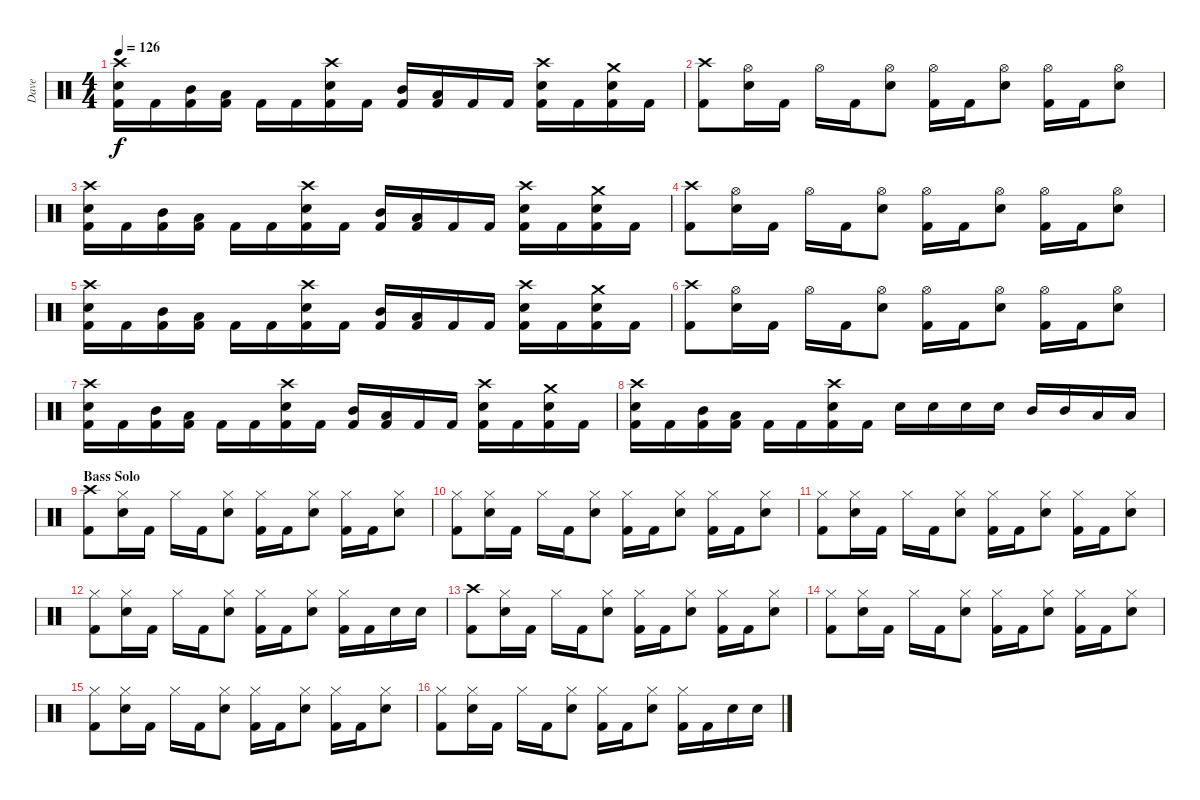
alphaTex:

\track ("Dave" "Dave") {instrument percussion}
\staff {score}
\articulation defaults
\ts (4 4)
\tempo 126
\clef neutral
\ks c
("Kick (hit) 2" "Electric Snare (hit)" "Crash high (hit)").16{dy f} "Kick (hit) 2".16 ("Kick (hit) 2" "Mid Tom (hit)").16 ("Kick (hit) 2" "Low Tom (hit)").16 "Kick (hit) 2".16 "Kick (hit) 2".16 ("Kick (hit) 2" "Electric Snare (hit)" "Crash high (hit)").16 "Kick (hit) 2".16 ("Kick (hit) 2" "Mid Tom (hit)").16 ("Kick (hit) 2" "Low Tom (hit)").16 "Kick (hit) 2".16 "Kick (hit) 2".16 ("Kick (hit) 2" "Electric Snare (hit)" "Crash high (hit)").16 "Kick (hit) 2".16 ("Kick (hit) 2" "Electric Snare (hit)" "Crash medium (hit)").16 "Kick (hit) 2".16 |
("Kick (hit) 2" "Crash high (hit)").8 ("Electric Snare (hit)" "Hi-Hat (open)").16 "Kick (hit) 2".16 "Hi-Hat (open)".16 "Kick (hit) 2".16 ("Electric Snare (hit)" "Hi-Hat (open)").8 ("Kick (hit) 2" "Hi-Hat (open)").16 "Kick (hit) 2".16 ("Electric Snare (hit)" "Hi-Hat (open)").8 ("Kick (hit) 2" "Hi-Hat (open)").16 "Kick (hit) 2".16 ("Electric Snare (hit)" "Hi-Hat (open)").8 |
("Kick (hit) 2" "Electric Snare (hit)" "Crash high (hit)").16 "Kick (hit) 2".16 ("Kick (hit) 2" "Mid Tom (hit)").16 ("Kick (hit) 2" "Low Tom (hit)").16 "Kick (hit) 2".16 "Kick (hit) 2".16 ("Kick (hit) 2" "Electric Snare (hit)" "Crash high (hit)").16 "Kick (hit) 2".16 ("Kick (hit) 2" "Mid Tom (hit)").16 ("Kick (hit) 2" "Low Tom (hit)").16 "Kick (hit) 2".16 "Kick (hit) 2".16 ("Kick (hit) 2" "Electric Snare (hit)" "Crash high (hit)").16 "Kick (hit) 2".16 ("Kick (hit) 2" "Electric Snare (hit)" "Crash medium (hit)").16 "Kick (hit) 2".16 |
("Kick (hit) 2" "Crash high (hit)").8 ("Electric Snare (hit)" "Hi-Hat (open)").16 "Kick (hit) 2".16 "Hi-Hat (open)".16 "Kick (hit) 2".16 ("Electric Snare (hit)" "Hi-Hat (open)").8 ("Kick (hit) 2" "Hi-Hat (open)").16 "Kick (hit) 2".16 ("Electric Snare (hit)" "Hi-Hat (open)").8 ("Kick (hit) 2" "Hi-Hat (open)").16 "Kick (hit) 2".16 ("Electric Snare (hit)" "Hi-Hat (open)").8 |
("Kick (hit) 2" "Electric Snare (hit)" "Crash high (hit)").16 "Kick (hit) 2".16 ("Kick (hit) 2" "Mid Tom (hit)").16 ("Kick (hit) 2" "Low Tom (hit)").16 "Kick (hit) 2".16 "Kick (hit) 2".16 ("Kick (hit) 2" "Electric Snare (hit)" "Crash high (hit)").16 "Kick (hit) 2".16 ("Kick (hit) 2" "Mid Tom (hit)").16 ("Kick (hit) 2" "Low Tom (hit)").16 "Kick (hit) 2".16 "Kick (hit) 2".16 ("Kick (hit) 2" "Electric Snare (hit)" "Crash high (hit)").16 "Kick (hit) 2".16 ("Kick (hit) 2" "Electric Snare (hit)" "Crash medium (hit)").16 "Kick (hit) 2".16 |
("Kick (hit) 2" "Crash high (hit)").8 ("Electric Snare (hit)" "Hi-Hat (open)").16 "Kick (hit) 2".16 "Hi-Hat (open)".16 "Kick (hit) 2".16 ("Electric Snare (hit)" "Hi-Hat (open)").8 ("Kick (hit) 2" "Hi-Hat (open)").16 "Kick (hit) 2".16 ("Electric Snare (hit)" "Hi-Hat (open)").8 ("Kick (hit) 2" "Hi-Hat (open)").16 "Kick (hit) 2".16 ("Electric Snare (hit)" "Hi-Hat (open)").8 |
("Kick (hit) 2" "Electric Snare (hit)" "Crash high (hit)").16 "Kick (hit) 2".16 ("Kick (hit) 2" "Mid Tom (hit)").16 ("Kick (hit) 2" "Low Tom (hit)").16 "Kick (hit) 2".16 "Kick (hit) 2".16 ("Kick (hit) 2" "Electric Snare (hit)" "Crash high (hit)").16 "Kick (hit) 2".16 ("Kick (hit) 2" "Mid Tom (hit)").16 ("Kick (hit) 2" "Low Tom (hit)").16 "Kick (hit) 2".16 "Kick (hit) 2".16 ("Kick (hit) 2" "Electric Snare (hit)" "Crash high (hit)").16 "Kick (hit) 2".16 ("Kick (hit) 2" "Electric Snare (hit)" "Crash medium (hit)").16 "Kick (hit) 2".16 |
("Kick (hit) 2" "Electric Snare (hit)" "Crash high (hit)").16 "Kick (hit) 2".16 ("Kick (hit) 2" "Mid Tom (hit)").16 ("Kick (hit) 2" "Low Tom (hit)").16 "Kick (hit) 2".16 "Kick (hit) 2".16 ("Kick (hit) 2" "Electric Snare (hit)" "Crash high (hit)").16 "Kick (hit) 2".16 "Electric Snare (hit)".16 "Electric Snare (hit)".16 "Electric Snare (hit)".16 "Electric Snare (hit)".16 "Mid Tom (hit)".16 "Mid Tom (hit)".16 "Low Tom (hit)".16 "Low Tom (hit)".16 |
\section ("" "Bass Solo")
("Kick (hit) 2" "Crash high (hit)").8 ("Electric Snare (hit)" "Hi-Hat (closed)").16 "Kick (hit) 2".16 "Hi-Hat (closed)".16 "Kick (hit) 2".16 ("Electric Snare (hit)" "Hi-Hat (closed)").8 ("Kick (hit) 2" "Hi-Hat (closed)").16 "Kick (hit) 2".16 ("Electric Snare (hit)" "Hi-Hat (closed)").8 ("Kick (hit) 2" "Hi-Hat (closed)").16 "Kick (hit) 2".16 ("Electric Snare (hit)" "Hi-Hat (closed)").8 |
("Kick (hit) 2" "Hi-Hat (closed)").8 ("Electric Snare (hit)" "Hi-Hat (closed)").16 "Kick (hit) 2".16 "Hi-Hat (closed)".16 "Kick (hit) 2".16 ("Electric Snare (hit)" "Hi-Hat (closed)").8 ("Kick (hit) 2" "Hi-Hat (closed)").16 "Kick (hit) 2".16 ("Electric Snare (hit)" "Hi-Hat (closed)").8 ("Kick (hit) 2" "Hi-Hat (closed)").16 "Kick (hit) 2".16 ("Electric Snare (hit)" "Hi-Hat (closed)").8 |
("Kick (hit) 2" "Hi-Hat (closed)").8 ("Electric Snare (hit)" "Hi-Hat (closed)").16 "Kick (hit) 2".16 "Hi-Hat (closed)".16 "Kick (hit) 2".16 ("Electric Snare (hit)" "Hi-Hat (closed)").8 ("Kick (hit) 2" "Hi-Hat (closed)").16 "Kick (hit) 2".16 ("Electric Snare (hit)" "Hi-Hat (closed)").8 ("Kick (hit) 2" "Hi-Hat (closed)").16 "Kick (hit) 2".16 ("Electric Snare (hit)" "Hi-Hat (closed)").8 |
("Kick (hit) 2" "Hi-Hat (closed)").8 ("Electric Snare (hit)" "Hi-Hat (closed)").16 "Kick (hit) 2".16 "Hi-Hat (closed)".16 "Kick (hit) 2".16 ("Electric Snare (hit)" "Hi-Hat (closed)").8 ("Kick (hit) 2" "Hi-Hat (closed)").16 "Kick (hit) 2".16 ("Electric Snare (hit)" "Hi-Hat (closed)").8 ("Kick (hit) 2" "Hi-Hat (closed)").16 "Kick (hit) 2".16 "Electric Snare (hit)".16 "Electric Snare (hit)".16 |
("Kick (hit) 2" "Crash high (hit)").8 ("Electric Snare (hit)" "Hi-Hat (closed)").16 "Kick (hit) 2".16 "Hi-Hat (closed)".16 "Kick (hit) 2".16 ("Electric Snare (hit)" "Hi-Hat (closed)").8 ("Kick (hit) 2" "Hi-Hat (closed)").16 "Kick (hit) 2".16 ("Electric Snare (hit)" "Hi-Hat (closed)").8 ("Kick (hit) 2" "Hi-Hat (closed)").16 "Kick (hit) 2".16 ("Electric Snare (hit)" "Hi-Hat (closed)").8 |
("Kick (hit) 2" "Hi-Hat (closed)").8 ("Electric Snare (hit)" "Hi-Hat (closed)").16 "Kick (hit) 2".16 "Hi-Hat (closed)".16 "Kick (hit) 2".16 ("Electric Snare (hit)" "Hi-Hat (closed)").8 ("Kick (hit) 2" "Hi-Hat (closed)").16 "Kick (hit) 2".16 ("Electric Snare (hit)" "Hi-Hat (closed)").8 ("Kick (hit) 2" "Hi-Hat (closed)").16 "Kick (hit) 2".16 ("Electric Snare (hit)" "Hi-Hat (closed)").8 |
("Kick (hit) 2" "Hi-Hat (closed)").8 ("Electric Snare (hit)" "Hi-Hat (closed)").16 "Kick (hit) 2".16 "Hi-Hat (closed)".16 "Kick (hit) 2".16 ("Electric Snare (hit)" "Hi-Hat (closed)").8 ("Kick (hit) 2" "Hi-Hat (closed)").16 "Kick (hit) 2".16 ("Electric Snare (hit)" "Hi-Hat (closed)").8 ("Kick (hit) 2" "Hi-Hat (closed)").16 "Kick (hit) 2".16 ("Electric Snare (hit)" "Hi-Hat (closed)").8 |
("Kick (hit) 2" "Hi-Hat (closed)").8 ("Electric Snare (hit)" "Hi-Hat (closed)").16 "Kick (hit) 2".16 "Hi-Hat (closed)".16 "Kick (hit) 2".16 ("Electric Snare (hit)" "Hi-Hat (closed)").8 ("Kick (hit) 2" "Hi-Hat (closed)").16 "Kick (hit) 2".16 ("Electric Snare (hit)" "Hi-Hat (closed)").8 ("Kick (hit) 2" "Hi-Hat (closed)").16 "Kick (hit) 2".16 "Electric Snare (hit)".16 "Electric Snare (hit)".16
